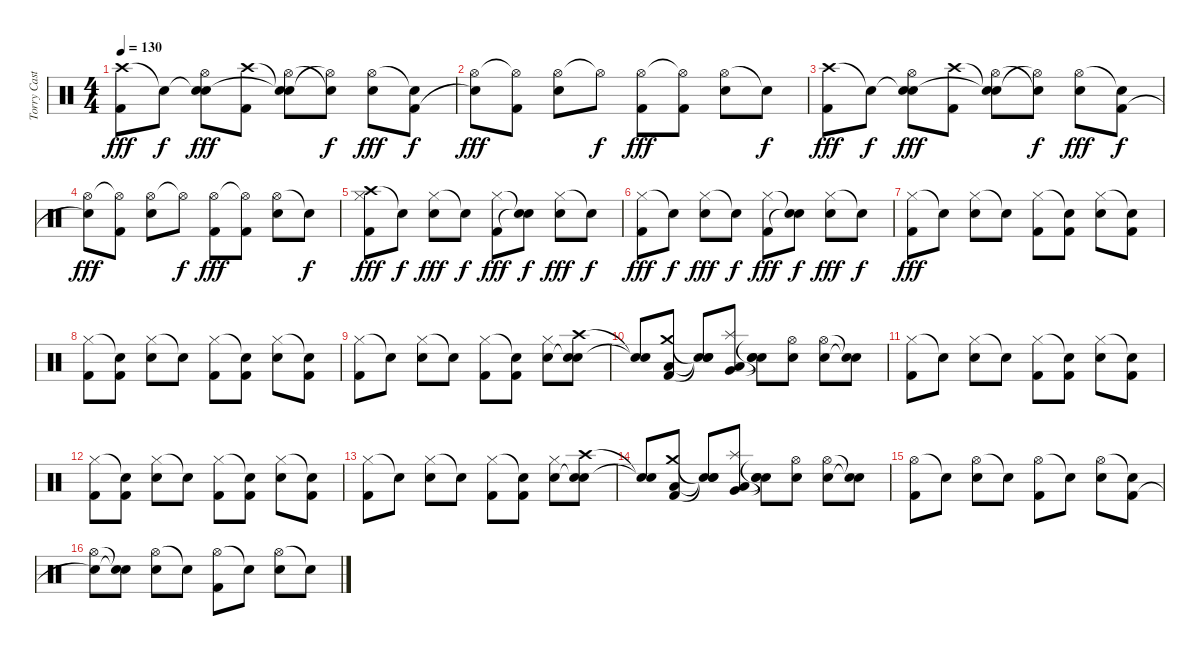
\track ("Torry Castellano" "Torry Cast") {instrument percussion}
\staff {score}
\articulation defaults
\ts (4 4)
\tempo 130
\clef neutral
\ks c
("Crash high (hit)" "Kick (hit) 2").8{dy fff} "Snare (hit)"{t}.8{dy f} ("Snare (hit)"{t} "Hi-Hat (open)" "Electric Snare (hit)").8{dy fff} ("Crash high (hit)" "Kick (hit) 2").8 ("Snare (hit)"{t} "Hi-Hat (open)" "Snare (hit)"{t}).8 ("Hi-Hat (open)"{t} "Electric Snare (hit)"{t}).8{dy f} ("Hi-Hat (open)" "Electric Snare (hit)").8{dy fff} ("Snare (hit)"{t} "Kick (hit) 2").8{dy f} |
("Hi-Hat (open)" "Snare (hit)"{t}).8{dy fff} ("Hi-Hat (open)"{t} "Kick (hit) 2").8 ("Hi-Hat (open)" "Electric Snare (hit)").8 "Hi-Hat (open)"{t}.8{dy f} ("Hi-Hat (open)" "Kick (hit) 2").8{dy fff} ("Hi-Hat (open)"{t} "Kick (hit) 2").8 ("Hi-Hat (open)" "Electric Snare (hit)").8 "Snare (hit)"{t}.8{dy f} |
("Crash high (hit)" "Kick (hit) 2").8{dy fff} "Snare (hit)"{t}.8{dy f} ("Snare (hit)"{t} "Hi-Hat (open)" "Electric Snare (hit)").8{dy fff} ("Crash high (hit)" "Kick (hit) 2").8 ("Snare (hit)"{t} "Hi-Hat (open)" "Snare (hit)"{t}).8 ("Hi-Hat (open)"{t} "Electric Snare (hit)"{t}).8{dy f} ("Hi-Hat (open)" "Electric Snare (hit)").8{dy fff} ("Snare (hit)"{t} "Kick (hit) 2").8{dy f} |
("Hi-Hat (open)" "Snare (hit)"{t}).8{dy fff} ("Hi-Hat (open)"{t} "Kick (hit) 2").8 ("Hi-Hat (open)" "Electric Snare (hit)").8 "Hi-Hat (open)"{t}.8{dy f} ("Hi-Hat (open)" "Kick (hit) 2").8{dy fff} ("Hi-Hat (open)"{t} "Kick (hit) 2").8 ("Hi-Hat (open)" "Electric Snare (hit)").8 "Snare (hit)"{t}.8{dy f} |
("Crash high (hit)" "Hi-Hat (closed)" "Kick (hit) 2").8{dy fff} "Snare (hit)"{t}.8{dy f} ("Hi-Hat (closed)" "Electric Snare (hit)").8{dy fff} "Snare (hit)"{t}.8{dy f} ("Hi-Hat (closed)" "Kick (hit) 2").8{dy fff} ("Snare (hit)"{t} "Snare (hit)"{t}).8{dy f} ("Hi-Hat (closed)" "Electric Snare (hit)").8{dy fff} "Snare (hit)"{t}.8{dy f} |
("Hi-Hat (closed)" "Kick (hit) 2").8{dy fff} "Snare (hit)"{t}.8{dy f} ("Hi-Hat (closed)" "Electric Snare (hit)").8{dy fff} "Snare (hit)"{t}.8{dy f} ("Hi-Hat (closed)" "Kick (hit) 2").8{dy fff} ("Snare (hit)"{t} "Snare (hit)"{t}).8{dy f} ("Hi-Hat (closed)" "Electric Snare (hit)").8{dy fff} "Snare (hit)"{t}.8{dy f} |
("Hi-Hat (closed)" "Kick (hit) 2").8{dy fff} "Snare (hit)"{t}.8 ("Hi-Hat (closed)" "Electric Snare (hit)").8 "Snare (hit)"{t}.8 ("Hi-Hat (closed)" "Kick (hit) 2").8 ("Snare (hit)"{t} "Kick (hit) 2").8 ("Hi-Hat (closed)" "Electric Snare (hit)").8 ("Snare (hit)"{t} "Kick (hit) 2").8 |
("Hi-Hat (closed)" "Kick (hit) 2").8 ("Snare (hit)"{t} "Kick (hit) 2").8 ("Hi-Hat (closed)" "Electric Snare (hit)").8 "Snare (hit)"{t}.8 ("Hi-Hat (closed)" "Kick (hit) 2").8 ("Snare (hit)"{t} "Kick (hit) 2").8 ("Hi-Hat (closed)" "Electric Snare (hit)").8 ("Snare (hit)"{t} "Kick (hit) 2").8 |
("Hi-Hat (closed)" "Kick (hit) 2").8 "Snare (hit)"{t}.8 ("Hi-Hat (closed)" "Electric Snare (hit)").8 "Snare (hit)"{t}.8 ("Hi-Hat (closed)" "Kick (hit) 2").8 ("Snare (hit)"{t} "Kick (hit) 2").8 ("Hi-Hat (closed)" "Electric Snare (hit)").8 ("Crash high (hit)" "Snare (hit)"{t} "Electric Snare (hit)").8 |
("Snare (hit)"{t} "Snare (hit)"{t}).8 ("Crash medium (hit)" "Low Floor Tom (hit)" "Kick (hit) 2").8 ("Snare (hit)"{t} "Snare (hit)"{t} "Snare (hit)"{t}).8 ("Splash (hit)" "Very Low Tom (hit)" "Low Floor Tom (hit)").8 ("Snare (hit)"{t} "Snare (hit)"{t} "Snare (hit)"{t}).8 ("Hi-Hat (open)" "Electric Snare (hit)").8 ("Hi-Hat (open)" "Electric Snare (hit)").8 ("Snare (hit)"{t} "Snare (hit)"{t}).8 |
("Hi-Hat (closed)" "Kick (hit) 2").8 "Snare (hit)"{t}.8 ("Hi-Hat (closed)" "Electric Snare (hit)").8 "Snare (hit)"{t}.8 ("Hi-Hat (closed)" "Kick (hit) 2").8 ("Snare (hit)"{t} "Kick (hit) 2").8 ("Hi-Hat (closed)" "Electric Snare (hit)").8 ("Snare (hit)"{t} "Kick (hit) 2").8 |
("Hi-Hat (closed)" "Kick (hit) 2").8 ("Snare (hit)"{t} "Kick (hit) 2").8 ("Hi-Hat (closed)" "Electric Snare (hit)").8 "Snare (hit)"{t}.8 ("Hi-Hat (closed)" "Kick (hit) 2").8 ("Snare (hit)"{t} "Kick (hit) 2").8 ("Hi-Hat (closed)" "Electric Snare (hit)").8 ("Snare (hit)"{t} "Kick (hit) 2").8 |
("Hi-Hat (closed)" "Kick (hit) 2").8 "Snare (hit)"{t}.8 ("Hi-Hat (closed)" "Electric Snare (hit)").8 "Snare (hit)"{t}.8 ("Hi-Hat (closed)" "Kick (hit) 2").8 ("Snare (hit)"{t} "Kick (hit) 2").8 ("Hi-Hat (closed)" "Electric Snare (hit)").8 ("Crash high (hit)" "Snare (hit)"{t} "Electric Snare (hit)").8 |
("Snare (hit)"{t} "Snare (hit)"{t}).8 ("Crash medium (hit)" "Low Floor Tom (hit)" "Kick (hit) 2").8 ("Snare (hit)"{t} "Snare (hit)"{t} "Snare (hit)"{t}).8 ("Splash (hit)" "Very Low Tom (hit)" "Low Floor Tom (hit)").8 ("Snare (hit)"{t} "Snare (hit)"{t} "Snare (hit)"{t}).8 ("Hi-Hat (open)" "Electric Snare (hit)").8 ("Hi-Hat (open)" "Electric Snare (hit)").8 ("Snare (hit)"{t} "Snare (hit)"{t}).8 |
("Hi-Hat (open)" "Kick (hit) 2").8 "Snare (hit)"{t}.8 ("Hi-Hat (open)" "Electric Snare (hit)").8 "Snare (hit)"{t}.8 ("Hi-Hat (open)" "Kick (hit) 2").8 "Snare (hit)"{t}.8 ("Hi-Hat (open)" "Electric Snare (hit)").8 ("Snare (hit)"{t} "Kick (hit) 2").8 |
("Hi-Hat (open)" "Snare (hit)"{t}).8 ("Snare (hit)"{t} "Electric Snare (hit)"{t}).8 ("Hi-Hat (open)" "Electric Snare (hit)").8 "Snare (hit)"{t}.8 ("Hi-Hat (open)" "Kick (hit) 2").8 "Snare (hit)"{t}.8 ("Hi-Hat (open)" "Electric Snare (hit)").8 "Snare (hit)"{t}.8
